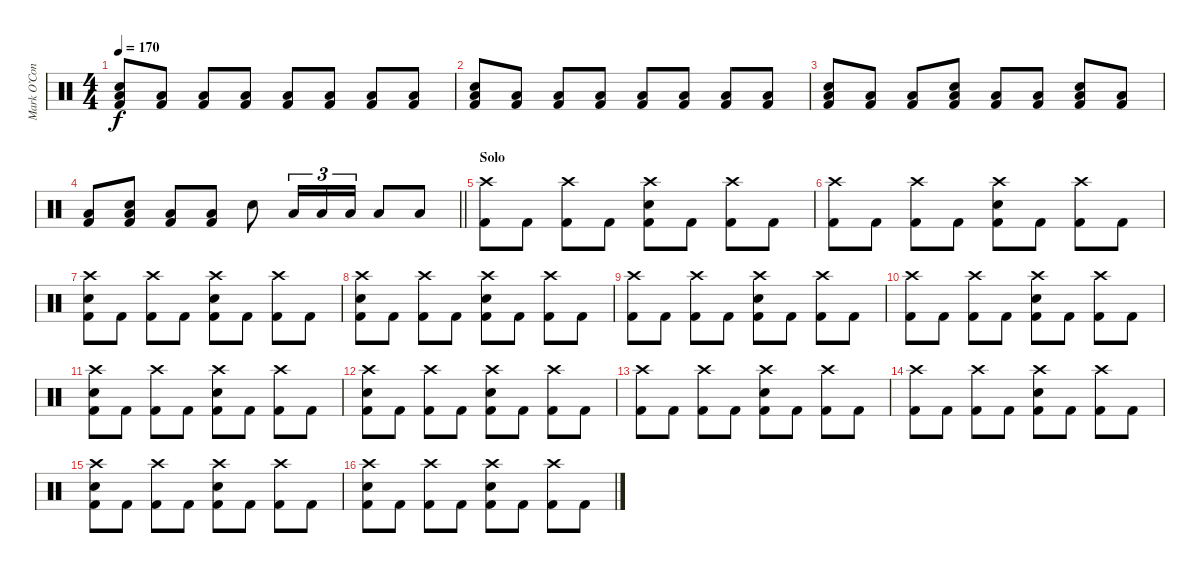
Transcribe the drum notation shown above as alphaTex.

\track ("Mark O’Connell - Drums" "Mark O’Con") {instrument percussion}
\staff {score}
\articulation defaults
\ts (4 4)
\tempo 170
\clef neutral
\ks c
("Snare (hit) 2" "Low Tom (hit)" "Kick (hit) 2").8{dy f volume 16} ("Low Tom (hit)" "Kick (hit) 2").8{volume 7} ("Low Tom (hit)" "Kick (hit) 2").8{volume 16} ("Low Tom (hit)" "Kick (hit) 2").8 ("Low Tom (hit)" "Kick (hit) 2").8 ("Low Tom (hit)" "Kick (hit) 2").8 ("Low Tom (hit)" "Kick (hit) 2").8 ("Low Tom (hit)" "Kick (hit) 2").8 |
("Snare (hit) 2" "Low Tom (hit)" "Kick (hit) 2").8{volume 16} ("Low Tom (hit)" "Kick (hit) 2").8{volume 7} ("Low Tom (hit)" "Kick (hit) 2").8{volume 16} ("Low Tom (hit)" "Kick (hit) 2").8 ("Low Tom (hit)" "Kick (hit) 2").8 ("Low Tom (hit)" "Kick (hit) 2").8 ("Low Tom (hit)" "Kick (hit) 2").8 ("Low Tom (hit)" "Kick (hit) 2").8 |
("Snare (hit) 2" "Low Tom (hit)" "Kick (hit) 2").8{volume 16} ("Low Tom (hit)" "Kick (hit) 2").8{volume 7} ("Low Tom (hit)" "Kick (hit) 2").8 ("Snare (hit) 2" "Low Tom (hit)" "Kick (hit) 2").8{volume 16} ("Low Tom (hit)" "Kick (hit) 2").8{volume 7} ("Low Tom (hit)" "Kick (hit) 2").8 ("Snare (hit) 2" "Low Tom (hit)" "Kick (hit) 2").8{volume 16} ("Low Tom (hit)" "Kick (hit) 2").8{volume 7} |
\barLineRight lightlight
("Low Tom (hit)" "Kick (hit) 2").8 ("Snare (hit) 2" "Low Tom (hit)" "Kick (hit) 2").8{volume 16} ("Low Tom (hit)" "Kick (hit) 2").8{volume 7} ("Low Tom (hit)" "Kick (hit) 2").8 "Snare (hit) 2".8{volume 16} "Low Tom (hit)".16{tu (3 2)} "Low Tom (hit)".16{tu (3 2)} "Low Tom (hit)".16{tu (3 2)} "Low Tom (hit)".8 "Low Tom (hit)".8 |
\section ("" "Solo")
("Crash high (hit)" "Kick (hit) 2").8 "Kick (hit) 2".8 ("Crash high (hit)" "Kick (hit) 2").8 "Kick (hit) 2".8 ("Crash high (hit)" "Snare (hit) 2" "Kick (hit) 2").8 "Kick (hit) 2".8 ("Crash high (hit)" "Kick (hit) 2").8 "Kick (hit) 2".8 |
("Crash high (hit)" "Kick (hit) 2").8 "Kick (hit) 2".8 ("Crash high (hit)" "Kick (hit) 2").8 "Kick (hit) 2".8 ("Crash high (hit)" "Snare (hit) 2" "Kick (hit) 2").8 "Kick (hit) 2".8 ("Crash high (hit)" "Kick (hit) 2").8 "Kick (hit) 2".8 |
("Crash high (hit)" "Snare (hit) 2" "Kick (hit) 2").8 "Kick (hit) 2".8 ("Crash high (hit)" "Kick (hit) 2").8 "Kick (hit) 2".8 ("Crash high (hit)" "Snare (hit) 2" "Kick (hit) 2").8 "Kick (hit) 2".8 ("Crash high (hit)" "Kick (hit) 2").8 "Kick (hit) 2".8 |
("Crash high (hit)" "Snare (hit) 2" "Kick (hit) 2").8 "Kick (hit) 2".8 ("Crash high (hit)" "Kick (hit) 2").8 "Kick (hit) 2".8 ("Crash high (hit)" "Snare (hit) 2" "Kick (hit) 2").8 "Kick (hit) 2".8 ("Crash high (hit)" "Kick (hit) 2").8 "Kick (hit) 2".8 |
("Crash high (hit)" "Kick (hit) 2").8 "Kick (hit) 2".8 ("Crash high (hit)" "Kick (hit) 2").8 "Kick (hit) 2".8 ("Crash high (hit)" "Snare (hit) 2" "Kick (hit) 2").8 "Kick (hit) 2".8 ("Crash high (hit)" "Kick (hit) 2").8 "Kick (hit) 2".8 |
("Crash high (hit)" "Kick (hit) 2").8 "Kick (hit) 2".8 ("Crash high (hit)" "Kick (hit) 2").8 "Kick (hit) 2".8 ("Crash high (hit)" "Snare (hit) 2" "Kick (hit) 2").8 "Kick (hit) 2".8 ("Crash high (hit)" "Kick (hit) 2").8 "Kick (hit) 2".8 |
("Crash high (hit)" "Snare (hit) 2" "Kick (hit) 2").8 "Kick (hit) 2".8 ("Crash high (hit)" "Kick (hit) 2").8 "Kick (hit) 2".8 ("Crash high (hit)" "Snare (hit) 2" "Kick (hit) 2").8 "Kick (hit) 2".8 ("Crash high (hit)" "Kick (hit) 2").8 "Kick (hit) 2".8 |
("Crash high (hit)" "Snare (hit) 2" "Kick (hit) 2").8 "Kick (hit) 2".8 ("Crash high (hit)" "Kick (hit) 2").8 "Kick (hit) 2".8 ("Crash high (hit)" "Snare (hit) 2" "Kick (hit) 2").8 "Kick (hit) 2".8 ("Crash high (hit)" "Kick (hit) 2").8 "Kick (hit) 2".8 |
("Crash high (hit)" "Kick (hit) 2").8 "Kick (hit) 2".8 ("Crash high (hit)" "Kick (hit) 2").8 "Kick (hit) 2".8 ("Crash high (hit)" "Snare (hit) 2" "Kick (hit) 2").8 "Kick (hit) 2".8 ("Crash high (hit)" "Kick (hit) 2").8 "Kick (hit) 2".8 |
("Crash high (hit)" "Kick (hit) 2").8 "Kick (hit) 2".8 ("Crash high (hit)" "Kick (hit) 2").8 "Kick (hit) 2".8 ("Crash high (hit)" "Snare (hit) 2" "Kick (hit) 2").8 "Kick (hit) 2".8 ("Crash high (hit)" "Kick (hit) 2").8 "Kick (hit) 2".8 |
("Crash high (hit)" "Snare (hit) 2" "Kick (hit) 2").8 "Kick (hit) 2".8 ("Crash high (hit)" "Kick (hit) 2").8 "Kick (hit) 2".8 ("Crash high (hit)" "Snare (hit) 2" "Kick (hit) 2").8 "Kick (hit) 2".8 ("Crash high (hit)" "Kick (hit) 2").8 "Kick (hit) 2".8 |
("Crash high (hit)" "Snare (hit) 2" "Kick (hit) 2").8 "Kick (hit) 2".8 ("Crash high (hit)" "Kick (hit) 2").8 "Kick (hit) 2".8 ("Crash high (hit)" "Snare (hit) 2" "Kick (hit) 2").8 "Kick (hit) 2".8 ("Crash high (hit)" "Kick (hit) 2").8 "Kick (hit) 2".8
